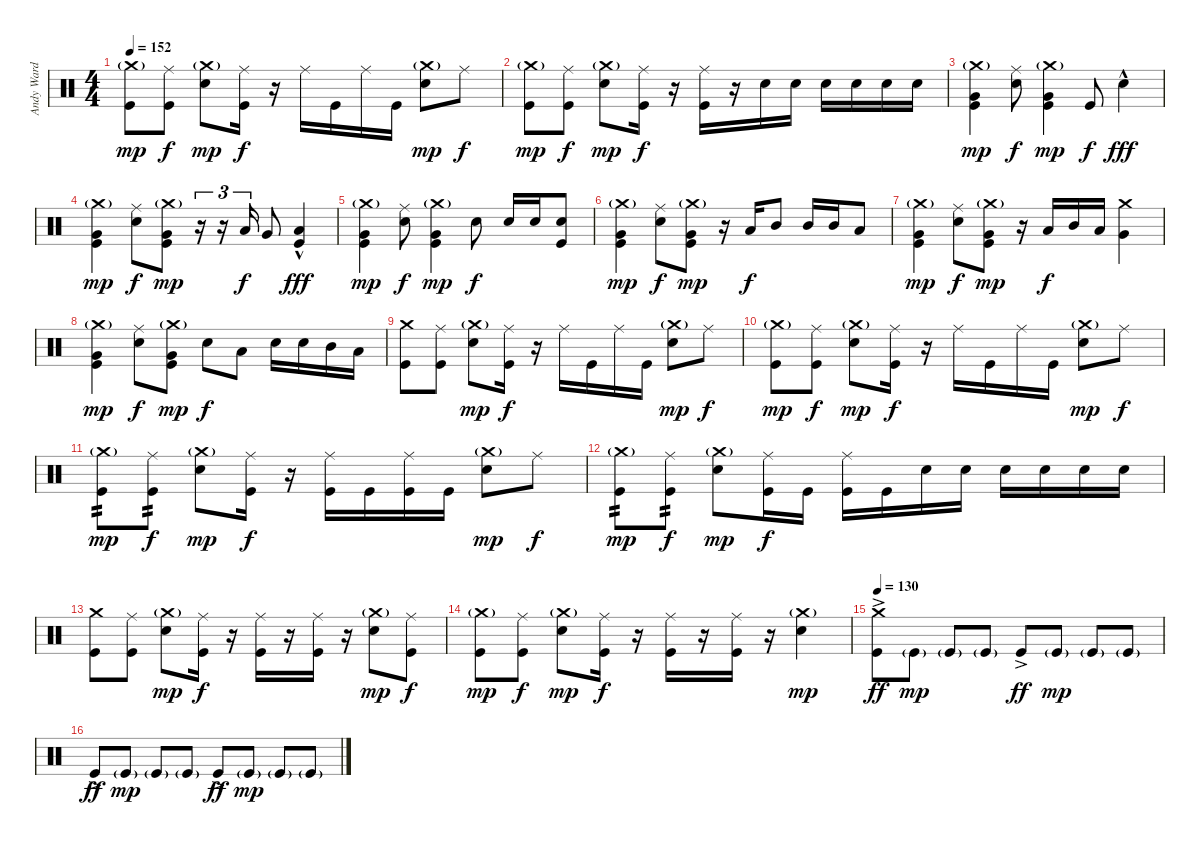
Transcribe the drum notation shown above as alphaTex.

\track ("Andy Ward (Drums)" "Andy Ward ") {instrument percussion}
\staff {score}
\articulation defaults
\ts (4 4)
\tempo 152
\clef neutral
\ks c
("Crash medium (hit)"{g} "Kick (hit)").8{dy mp} ("Ride (middle)" "Kick (hit)").8{dy f} ("Crash medium (hit)"{g} "Electric Snare (hit)").8{dy mp} ("Ride (middle)" "Kick (hit)").16{dy f} r.16 "Ride (middle)".16 "Kick (hit)".16 "Ride (middle)".16 "Kick (hit)".16 ("Crash medium (hit)"{g} "Electric Snare (hit)").8{dy mp} "Ride (middle)".8{dy f} |
("Crash medium (hit)"{g} "Kick (hit)").8{dy mp} ("Ride (middle)" "Kick (hit)").8{dy f} ("Crash medium (hit)"{g} "Electric Snare (hit)").8{dy mp} ("Ride (middle)" "Kick (hit)").16{dy f} r.16 ("Ride (middle)" "Kick (hit)").16 r.16 "Electric Snare (hit)".16 "Electric Snare (hit)".16 "Electric Snare (hit)".16 "Electric Snare (hit)".16 "Electric Snare (hit)".16 "Electric Snare (hit)".16 |
("Crash medium (hit)"{g} "Very Low Tom (hit)" "Kick (hit)").4{dy mp} ("Ride (middle)" "Electric Snare (hit)").8{dy f} ("Crash medium (hit)"{g} "Very Low Tom (hit)" "Kick (hit)").4{dy mp} "Kick (hit)".8{dy f} "Electric Snare (hit)"{hac}.4{dy fff} |
("Crash medium (hit)"{g} "Very Low Tom (hit)" "Kick (hit)").4{dy mp} ("Ride (middle)" "Electric Snare (hit)").8{dy f} ("Crash medium (hit)"{g} "Very Low Tom (hit)" "Kick (hit)").8{dy mp} r.16{tu (3 2)} r.16{tu (3 2)} "Low Tom (hit)".16{tu (3 2) dy f} "Very Low Tom (hit)".8 ("Low Floor Tom (hit)"{hac} "Kick (hit)").4{dy fff} |
("Crash medium (hit)"{g} "Very Low Tom (hit)" "Kick (hit)").4{dy mp} ("Ride (middle)" "Electric Snare (hit)").8{dy f} ("Crash medium (hit)"{g} "Very Low Tom (hit)" "Kick (hit)").4{dy mp} "Electric Snare (hit)".8{dy f} "Electric Snare (hit)".16 "Electric Snare (hit)".16 ("Electric Snare (hit)" "Kick (hit)").8 |
("Crash medium (hit)"{g} "Very Low Tom (hit)" "Kick (hit)").4{dy mp} ("Ride (middle)" "Electric Snare (hit)").8{dy f} ("Crash medium (hit)"{g} "Very Low Tom (hit)" "Kick (hit)").8{dy mp} r.16 "Low Tom (hit)".16{dy f} "Mid Tom (hit)".8 "Mid Tom (hit)".16 "Mid Tom (hit)".16 "Low Tom (hit)".8 |
("Crash medium (hit)"{g} "Very Low Tom (hit)" "Kick (hit)").4{dy mp} ("Ride (middle)" "Electric Snare (hit)").8{dy f} ("Crash medium (hit)"{g} "Very Low Tom (hit)" "Kick (hit)").8{dy mp} r.16 "Low Tom (hit)".16{dy f} "Mid Tom (hit)".16 "Low Tom (hit)".16 ("Crash medium (hit)" "Very Low Tom (hit)").4 |
("Crash medium (hit)"{g} "Very Low Tom (hit)" "Kick (hit)").4{dy mp} ("Ride (middle)" "Electric Snare (hit)").8{dy f} ("Crash medium (hit)"{g} "Very Low Tom (hit)" "Kick (hit)").8{dy mp} "Electric Snare (hit)".8{dy f} "Low Tom (hit)".8 "Electric Snare (hit)".16 "Electric Snare (hit)".16 "Mid Tom (hit)".16 "Low Tom (hit)".16 |
("Crash medium (hit)" "Kick (hit)").8 ("Ride (middle)" "Kick (hit)").8 ("Crash medium (hit)"{g} "Electric Snare (hit)").8{dy mp} ("Ride (middle)" "Kick (hit)").16{dy f} r.16 "Ride (middle)".16 "Kick (hit)".16 "Ride (middle)".16 "Kick (hit)".16 ("Crash medium (hit)"{g} "Electric Snare (hit)").8{dy mp} "Ride (middle)".8{dy f} |
("Crash medium (hit)"{g} "Kick (hit)").8{dy mp} ("Ride (middle)" "Kick (hit)").8{dy f} ("Crash medium (hit)"{g} "Electric Snare (hit)").8{dy mp} ("Ride (middle)" "Kick (hit)").16{dy f} r.16 "Ride (middle)".16 "Kick (hit)".16 "Ride (middle)".16 "Kick (hit)".16 ("Crash medium (hit)"{g} "Electric Snare (hit)").8{dy mp} "Ride (middle)".8{dy f} |
("Crash medium (hit)"{g} "Kick (hit)").8{tp 2 dy mp} ("Ride (middle)" "Kick (hit)").8{tp 2 dy f} ("Crash medium (hit)"{g} "Electric Snare (hit)").8{dy mp} ("Ride (middle)" "Kick (hit)").16{dy f} r.16 ("Ride (middle)" "Kick (hit)").16 "Kick (hit)".16 ("Ride (middle)" "Kick (hit)").16 "Kick (hit)".16 ("Crash medium (hit)"{g} "Electric Snare (hit)").8{dy mp} "Ride (middle)".8{dy f} |
("Crash medium (hit)"{g} "Kick (hit)").8{tp 2 dy mp} ("Ride (middle)" "Kick (hit)").8{tp 2 dy f} ("Crash medium (hit)"{g} "Electric Snare (hit)").8{dy mp} ("Ride (middle)" "Kick (hit)").16{dy f} "Kick (hit)".16 ("Ride (middle)" "Kick (hit)").16 "Kick (hit)".16 "Electric Snare (hit)".16 "Electric Snare (hit)".16 "Electric Snare (hit)".16 "Electric Snare (hit)".16 "Electric Snare (hit)".16 "Electric Snare (hit)".16 |
("Crash medium (hit)" "Kick (hit)").8 ("Ride (middle)" "Kick (hit)").8 ("Crash medium (hit)"{g} "Electric Snare (hit)").8{dy mp} ("Ride (middle)" "Kick (hit)").16{dy f} r.16 ("Ride (middle)" "Kick (hit)").16 r.16 ("Ride (middle)" "Kick (hit)").16 r.16 ("Crash medium (hit)"{g} "Electric Snare (hit)").8{dy mp} ("Ride (middle)" "Kick (hit)").8{dy f} |
("Crash medium (hit)"{g} "Kick (hit)").8{dy mp} ("Ride (middle)" "Kick (hit)").8{dy f} ("Crash medium (hit)"{g} "Electric Snare (hit)").8{dy mp} ("Ride (middle)" "Kick (hit)").16{dy f} r.16 ("Ride (middle)" "Kick (hit)").16 r.16 ("Ride (middle)" "Kick (hit)").16 r.16 ("Crash medium (hit)"{g} "Electric Snare (hit)").4{dy mp} |
\tempo 130
("Crash medium (hit)" "Kick (hit)"{ac}).8{dy ff} "Kick (hit)"{g}.8{dy mp} "Kick (hit)"{g}.8 "Kick (hit)"{g}.8 "Kick (hit)"{ac}.8{dy ff} "Kick (hit)"{g}.8{dy mp} "Kick (hit)"{g}.8 "Kick (hit)"{g}.8 |
"Kick (hit)"{ac}.8{dy ff} "Kick (hit)"{g}.8{dy mp} "Kick (hit)"{g}.8 "Kick (hit)"{g}.8 "Kick (hit)"{ac}.8{dy ff} "Kick (hit)"{g}.8{dy mp} "Kick (hit)"{g}.8 "Kick (hit)"{g}.8
